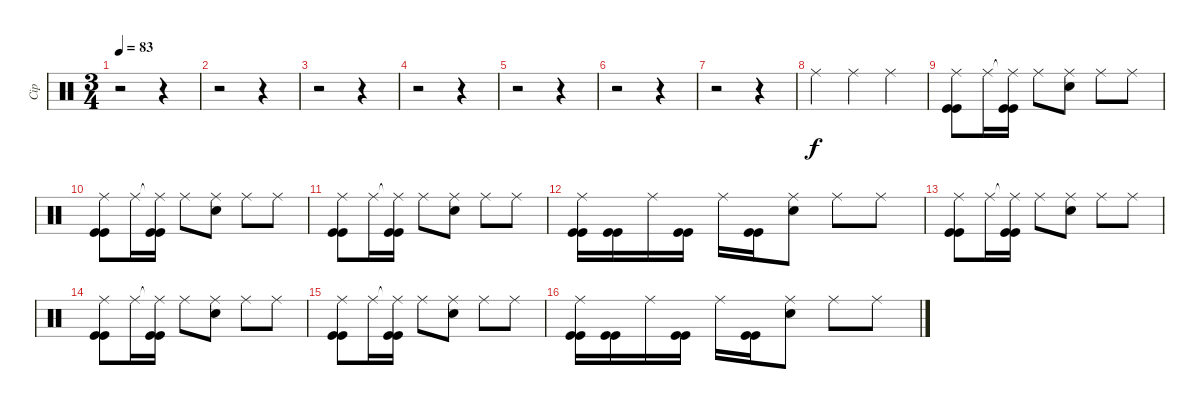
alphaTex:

\track ("Cip" "Cip") {instrument percussion}
\staff {score}
\articulation defaults
\ts (3 4)
\tempo 83
\clef neutral
\ks c
r.2{dy f} r.4 |
r.2 r.4 |
r.2 r.4 |
r.2 r.4 |
r.2 r.4 |
r.2 r.4 |
r.2 r.4 |
"Ride (middle)".4 "Ride (middle)".4 "Ride (middle)".4 |
("Ride (middle)" "Kick (hit)" "Kick (hit)").8 "Ride (middle)".16 ("Ride (middle)"{t} "Kick (hit)" "Kick (hit)").16 "Ride (middle)".8 ("Ride (middle)" "Electric Snare (hit)").8 "Ride (middle)".8 "Ride (middle)".8 |
("Ride (middle)" "Kick (hit)" "Kick (hit)").8 "Ride (middle)".16 ("Ride (middle)"{t} "Kick (hit)" "Kick (hit)").16 "Ride (middle)".8 ("Ride (middle)" "Electric Snare (hit)").8 "Ride (middle)".8 "Ride (middle)".8 |
("Ride (middle)" "Kick (hit)" "Kick (hit)").8 "Ride (middle)".16 ("Ride (middle)"{t} "Kick (hit)" "Kick (hit)").16 "Ride (middle)".8 ("Ride (middle)" "Electric Snare (hit)").8 "Ride (middle)".8 "Ride (middle)".8 |
("Ride (middle)" "Kick (hit)" "Kick (hit)").16 ("Kick (hit)" "Kick (hit)").16 "Ride (middle)".16 ("Kick (hit)" "Kick (hit)").16 "Ride (middle)".16 ("Kick (hit)" "Kick (hit)").16 ("Ride (middle)" "Electric Snare (hit)").8 "Ride (middle)".8 "Ride (middle)".8 |
("Ride (middle)" "Kick (hit)" "Kick (hit)").8 "Ride (middle)".16 ("Ride (middle)"{t} "Kick (hit)" "Kick (hit)").16 "Ride (middle)".8 ("Ride (middle)" "Electric Snare (hit)").8 "Ride (middle)".8 "Ride (middle)".8 |
("Ride (middle)" "Kick (hit)" "Kick (hit)").8 "Ride (middle)".16 ("Ride (middle)"{t} "Kick (hit)" "Kick (hit)").16 "Ride (middle)".8 ("Ride (middle)" "Electric Snare (hit)").8 "Ride (middle)".8 "Ride (middle)".8 |
("Ride (middle)" "Kick (hit)" "Kick (hit)").8 "Ride (middle)".16 ("Ride (middle)"{t} "Kick (hit)" "Kick (hit)").16 "Ride (middle)".8 ("Ride (middle)" "Electric Snare (hit)").8 "Ride (middle)".8 "Ride (middle)".8 |
("Ride (middle)" "Kick (hit)" "Kick (hit)").16 ("Kick (hit)" "Kick (hit)").16 "Ride (middle)".16 ("Kick (hit)" "Kick (hit)").16 "Ride (middle)".16 ("Kick (hit)" "Kick (hit)").16 ("Ride (middle)" "Electric Snare (hit)").8 "Ride (middle)".8 "Ride (middle)".8
